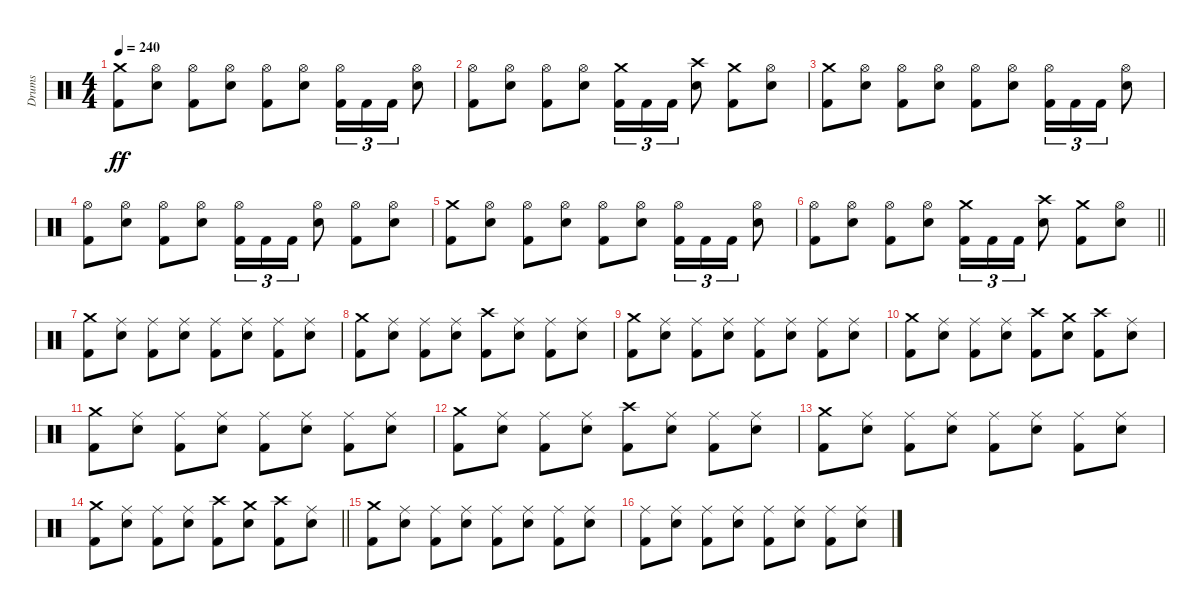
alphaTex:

\track ("Drums" "Drums") {instrument percussion}
\staff {score}
\articulation defaults
\ts (4 4)
\tempo 240
\clef neutral
\ks c
("Crash medium (hit)" "Kick (hit) 2").8{dy ff} ("Hi-Hat (open)" "Snare (hit) 2").8 ("Hi-Hat (open)" "Kick (hit) 2").8 ("Hi-Hat (open)" "Snare (hit) 2").8 ("Hi-Hat (open)" "Kick (hit) 2").8 ("Hi-Hat (open)" "Snare (hit) 2").8 ("Hi-Hat (open)" "Kick (hit) 2").16{tu (3 2)} "Kick (hit) 2".16{tu (3 2)} "Kick (hit) 2".16{tu (3 2)} ("Hi-Hat (open)" "Snare (hit) 2").8 |
("Hi-Hat (open)" "Kick (hit) 2").8 ("Hi-Hat (open)" "Snare (hit) 2").8 ("Hi-Hat (open)" "Kick (hit) 2").8 ("Hi-Hat (open)" "Snare (hit) 2").8 ("Crash medium (hit)" "Kick (hit) 2").16{tu (3 2)} "Kick (hit) 2".16{tu (3 2)} "Kick (hit) 2".16{tu (3 2)} ("Crash high (hit)" "Snare (hit) 2").8 ("Crash medium (hit)" "Kick (hit) 2").8 ("Hi-Hat (open)" "Snare (hit) 2").8 |
("Crash medium (hit)" "Kick (hit) 2").8 ("Hi-Hat (open)" "Snare (hit) 2").8 ("Hi-Hat (open)" "Kick (hit) 2").8 ("Hi-Hat (open)" "Snare (hit) 2").8 ("Hi-Hat (open)" "Kick (hit) 2").8 ("Hi-Hat (open)" "Snare (hit) 2").8 ("Hi-Hat (open)" "Kick (hit) 2").16{tu (3 2)} "Kick (hit) 2".16{tu (3 2)} "Kick (hit) 2".16{tu (3 2)} ("Hi-Hat (open)" "Snare (hit) 2").8 |
("Hi-Hat (open)" "Kick (hit) 2").8 ("Hi-Hat (open)" "Snare (hit) 2").8 ("Hi-Hat (open)" "Kick (hit) 2").8 ("Hi-Hat (open)" "Snare (hit) 2").8 ("Hi-Hat (open)" "Kick (hit) 2").16{tu (3 2)} "Kick (hit) 2".16{tu (3 2)} "Kick (hit) 2".16{tu (3 2)} ("Hi-Hat (open)" "Snare (hit) 2").8 ("Hi-Hat (open)" "Kick (hit) 2").8 ("Hi-Hat (open)" "Snare (hit) 2").8 |
("Crash medium (hit)" "Kick (hit) 2").8 ("Hi-Hat (open)" "Snare (hit) 2").8 ("Hi-Hat (open)" "Kick (hit) 2").8 ("Hi-Hat (open)" "Snare (hit) 2").8 ("Hi-Hat (open)" "Kick (hit) 2").8 ("Hi-Hat (open)" "Snare (hit) 2").8 ("Hi-Hat (open)" "Kick (hit) 2").16{tu (3 2)} "Kick (hit) 2".16{tu (3 2)} "Kick (hit) 2".16{tu (3 2)} ("Hi-Hat (open)" "Snare (hit) 2").8 |
\barLineRight lightlight
("Hi-Hat (open)" "Kick (hit) 2").8 ("Hi-Hat (open)" "Snare (hit) 2").8 ("Hi-Hat (open)" "Kick (hit) 2").8 ("Hi-Hat (open)" "Snare (hit) 2").8 ("Crash medium (hit)" "Kick (hit) 2").16{tu (3 2)} "Kick (hit) 2".16{tu (3 2)} "Kick (hit) 2".16{tu (3 2)} ("Crash high (hit)" "Snare (hit) 2").8 ("Crash medium (hit)" "Kick (hit) 2").8 ("Hi-Hat (open)" "Snare (hit) 2").8 |
("Crash medium (hit)" "Kick (hit) 2").8 ("Ride (middle)" "Snare (hit) 2").8 ("Ride (middle)" "Kick (hit) 2").8 ("Ride (middle)" "Snare (hit) 2").8 ("Ride (middle)" "Kick (hit) 2").8 ("Ride (middle)" "Snare (hit) 2").8 ("Ride (middle)" "Kick (hit) 2").8 ("Ride (middle)" "Snare (hit) 2").8 |
("Crash medium (hit)" "Kick (hit) 2").8 ("Ride (middle)" "Snare (hit) 2").8 ("Ride (middle)" "Kick (hit) 2").8 ("Ride (middle)" "Snare (hit) 2").8 ("Crash high (hit)" "Kick (hit) 2").8 ("Ride (middle)" "Snare (hit) 2").8 ("Ride (middle)" "Kick (hit) 2").8 ("Ride (middle)" "Snare (hit) 2").8 |
("Crash medium (hit)" "Kick (hit) 2").8 ("Ride (middle)" "Snare (hit) 2").8 ("Ride (middle)" "Kick (hit) 2").8 ("Ride (middle)" "Snare (hit) 2").8 ("Ride (middle)" "Kick (hit) 2").8 ("Ride (middle)" "Snare (hit) 2").8 ("Ride (middle)" "Kick (hit) 2").8 ("Ride (middle)" "Snare (hit) 2").8 |
("Crash medium (hit)" "Kick (hit) 2").8 ("Ride (middle)" "Snare (hit) 2").8 ("Ride (middle)" "Kick (hit) 2").8 ("Ride (middle)" "Snare (hit) 2").8 ("Crash high (hit)" "Kick (hit) 2").8 ("Crash medium (hit)" "Snare (hit) 2").8 ("Crash high (hit)" "Kick (hit) 2").8 ("Ride (middle)" "Snare (hit) 2").8 |
("Crash medium (hit)" "Kick (hit) 2").8 ("Ride (middle)" "Snare (hit) 2").8 ("Ride (middle)" "Kick (hit) 2").8 ("Ride (middle)" "Snare (hit) 2").8 ("Ride (middle)" "Kick (hit) 2").8 ("Ride (middle)" "Snare (hit) 2").8 ("Ride (middle)" "Kick (hit) 2").8 ("Ride (middle)" "Snare (hit) 2").8 |
("Crash medium (hit)" "Kick (hit) 2").8 ("Ride (middle)" "Snare (hit) 2").8 ("Ride (middle)" "Kick (hit) 2").8 ("Ride (middle)" "Snare (hit) 2").8 ("Crash high (hit)" "Kick (hit) 2").8 ("Ride (middle)" "Snare (hit) 2").8 ("Ride (middle)" "Kick (hit) 2").8 ("Ride (middle)" "Snare (hit) 2").8 |
("Crash medium (hit)" "Kick (hit) 2").8 ("Ride (middle)" "Snare (hit) 2").8 ("Ride (middle)" "Kick (hit) 2").8 ("Ride (middle)" "Snare (hit) 2").8 ("Ride (middle)" "Kick (hit) 2").8 ("Ride (middle)" "Snare (hit) 2").8 ("Ride (middle)" "Kick (hit) 2").8 ("Ride (middle)" "Snare (hit) 2").8 |
\barLineRight lightlight
("Crash medium (hit)" "Kick (hit) 2").8 ("Ride (middle)" "Snare (hit) 2").8 ("Ride (middle)" "Kick (hit) 2").8 ("Ride (middle)" "Snare (hit) 2").8 ("Crash high (hit)" "Kick (hit) 2").8 ("Crash medium (hit)" "Snare (hit) 2").8 ("Crash high (hit)" "Kick (hit) 2").8 ("Ride (middle)" "Snare (hit) 2").8 |
("Crash medium (hit)" "Kick (hit) 2").8 ("Ride (middle)" "Snare (hit) 2").8 ("Ride (middle)" "Kick (hit) 2").8 ("Ride (middle)" "Snare (hit) 2").8 ("Ride (middle)" "Kick (hit) 2").8 ("Ride (middle)" "Snare (hit) 2").8 ("Ride (middle)" "Kick (hit) 2").8 ("Ride (middle)" "Snare (hit) 2").8 |
("Ride (middle)" "Kick (hit) 2").8 ("Ride (middle)" "Snare (hit) 2").8 ("Ride (middle)" "Kick (hit) 2").8 ("Ride (middle)" "Snare (hit) 2").8 ("Ride (middle)" "Kick (hit) 2").8 ("Ride (middle)" "Snare (hit) 2").8 ("Ride (middle)" "Kick (hit) 2").8 ("Ride (middle)" "Snare (hit) 2").8
